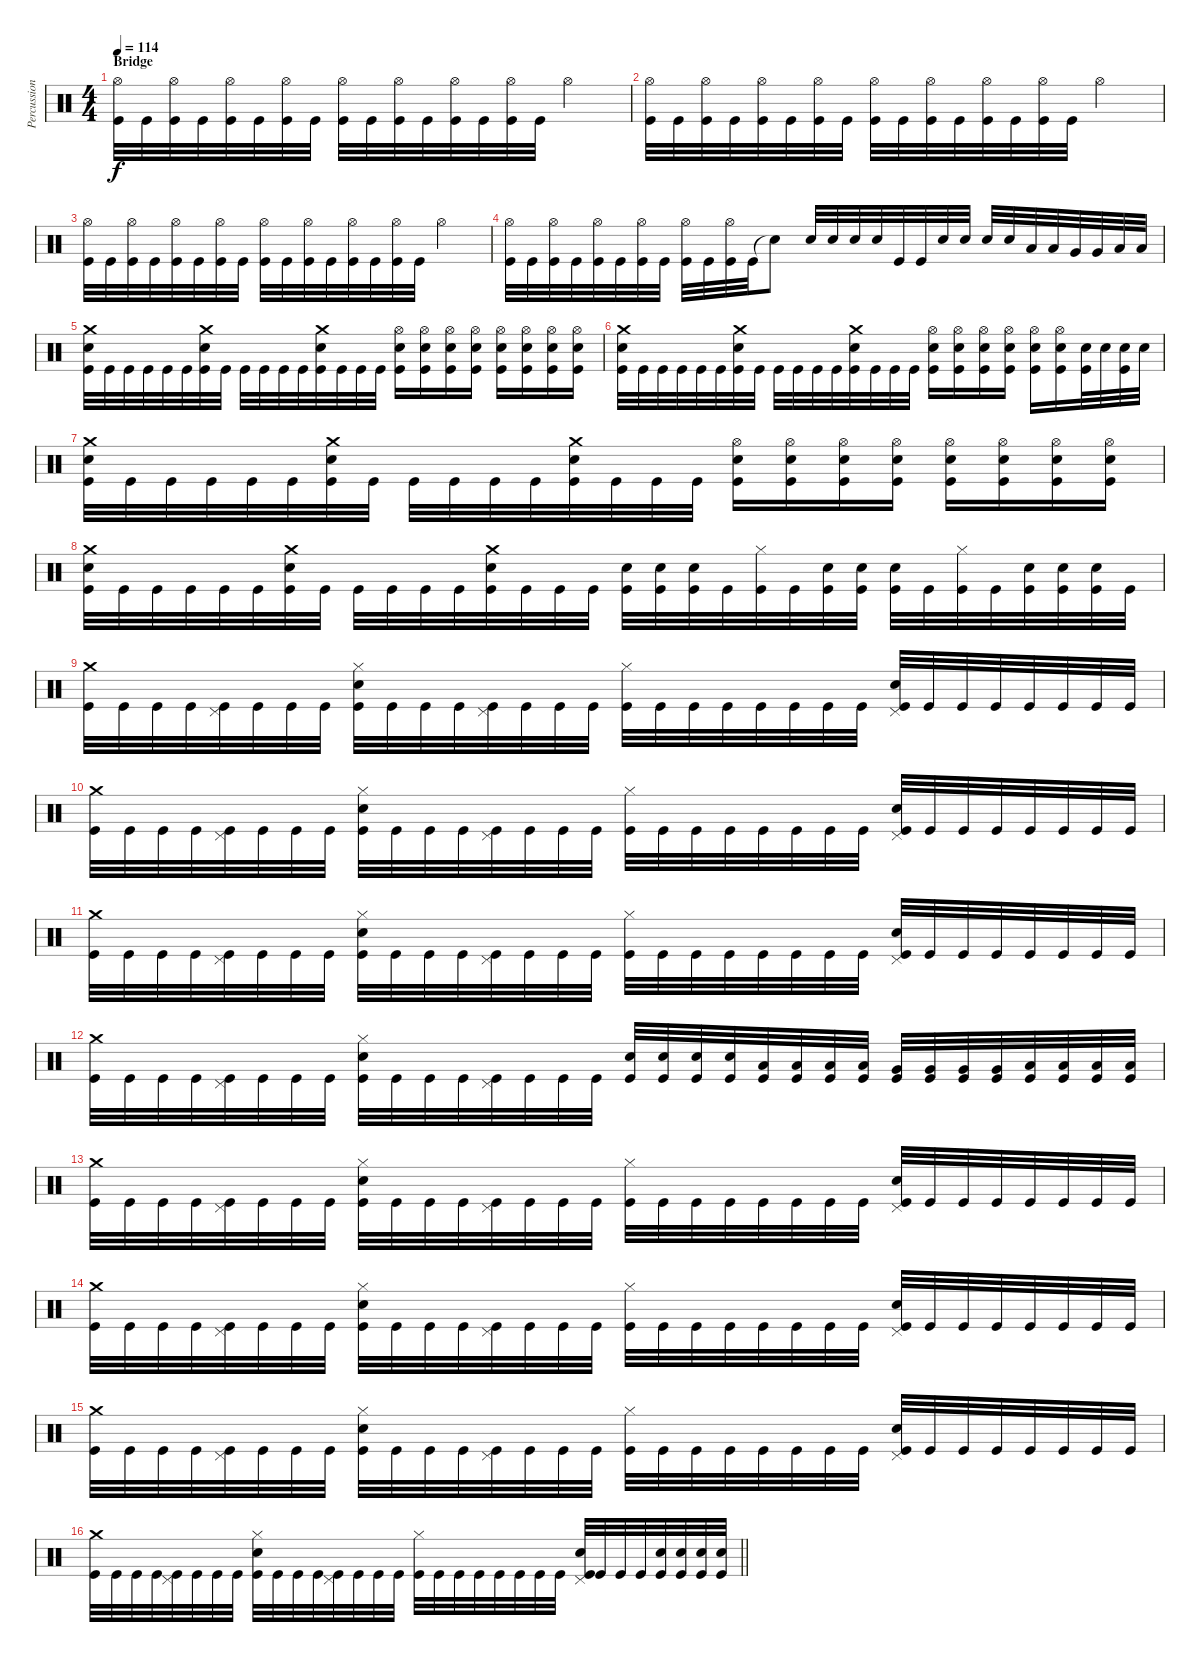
\track ("Percussion" "Percussion") {instrument percussion}
\staff {score}
\articulation defaults
\ts (4 4)
\section ("" "Bridge")
\tempo 114
\clef neutral
\ks c
("Hi-Hat (open)" "Kick (hit)").32{dy f} "Kick (hit)".32 ("Hi-Hat (open)" "Kick (hit)").32 "Kick (hit)".32 ("Hi-Hat (open)" "Kick (hit)").32 "Kick (hit)".32 ("Hi-Hat (open)" "Kick (hit)").32 "Kick (hit)".32 ("Hi-Hat (open)" "Kick (hit)").32 "Kick (hit)".32 ("Hi-Hat (open)" "Kick (hit)").32 "Kick (hit)".32 ("Hi-Hat (open)" "Kick (hit)").32 "Kick (hit)".32 ("Hi-Hat (open)" "Kick (hit)").32 "Kick (hit)".32 "Hi-Hat (open)".2 |
("Hi-Hat (open)" "Kick (hit)").32 "Kick (hit)".32 ("Hi-Hat (open)" "Kick (hit)").32 "Kick (hit)".32 ("Hi-Hat (open)" "Kick (hit)").32 "Kick (hit)".32 ("Hi-Hat (open)" "Kick (hit)").32 "Kick (hit)".32 ("Hi-Hat (open)" "Kick (hit)").32 "Kick (hit)".32 ("Hi-Hat (open)" "Kick (hit)").32 "Kick (hit)".32 ("Hi-Hat (open)" "Kick (hit)").32 "Kick (hit)".32 ("Hi-Hat (open)" "Kick (hit)").32 "Kick (hit)".32 "Hi-Hat (open)".2 |
("Hi-Hat (open)" "Kick (hit)").32 "Kick (hit)".32 ("Hi-Hat (open)" "Kick (hit)").32 "Kick (hit)".32 ("Hi-Hat (open)" "Kick (hit)").32 "Kick (hit)".32 ("Hi-Hat (open)" "Kick (hit)").32 "Kick (hit)".32 ("Hi-Hat (open)" "Kick (hit)").32 "Kick (hit)".32 ("Hi-Hat (open)" "Kick (hit)").32 "Kick (hit)".32 ("Hi-Hat (open)" "Kick (hit)").32 "Kick (hit)".32 ("Hi-Hat (open)" "Kick (hit)").32 "Kick (hit)".32 "Hi-Hat (open)".2 |
("Hi-Hat (open)" "Kick (hit)").32 "Kick (hit)".32 ("Hi-Hat (open)" "Kick (hit)").32 "Kick (hit)".32 ("Hi-Hat (open)" "Kick (hit)").32 "Kick (hit)".32 ("Hi-Hat (open)" "Kick (hit)").32 "Kick (hit)".32 ("Hi-Hat (open)" "Kick (hit)").32 "Kick (hit)".32 ("Hi-Hat (open)" "Kick (hit)").32 "Kick (hit)".32 "Snare (hit)"{t}.8 "Electric Snare (hit)".32 "Electric Snare (hit)".32 "Electric Snare (hit)".32 "Electric Snare (hit)".32 "Kick (hit)".32 "Kick (hit)".32 "Electric Snare (hit)".32 "Electric Snare (hit)".32 "Electric Snare (hit)".32 "Electric Snare (hit)".32 "Low Tom (hit)".32 "Low Tom (hit)".32 "Very Low Tom (hit)".32 "Very Low Tom (hit)".32 "Low Floor Tom (hit)".32 "Low Floor Tom (hit)".32 |
("Crash medium (hit)" "Electric Snare (hit)" "Kick (hit)").32 "Kick (hit)".32 "Kick (hit)".32 "Kick (hit)".32 "Kick (hit)".32 "Kick (hit)".32 ("Crash medium (hit)" "Electric Snare (hit)" "Kick (hit)").32 "Kick (hit)".32 "Kick (hit)".32 "Kick (hit)".32 "Kick (hit)".32 "Kick (hit)".32 ("Crash medium (hit)" "Electric Snare (hit)" "Kick (hit)").32 "Kick (hit)".32 "Kick (hit)".32 "Kick (hit)".32 ("Hi-Hat (open)" "Electric Snare (hit)" "Kick (hit)").16 ("Hi-Hat (open)" "Electric Snare (hit)" "Kick (hit)").16 ("Hi-Hat (open)" "Electric Snare (hit)" "Kick (hit)").16 ("Hi-Hat (open)" "Electric Snare (hit)" "Kick (hit)").16 ("Hi-Hat (open)" "Electric Snare (hit)" "Kick (hit)").16 ("Hi-Hat (open)" "Electric Snare (hit)" "Kick (hit)").16 ("Hi-Hat (open)" "Electric Snare (hit)" "Kick (hit)").16 ("Hi-Hat (open)" "Electric Snare (hit)" "Kick (hit)").16 |
("Crash medium (hit)" "Electric Snare (hit)" "Kick (hit)").32 "Kick (hit)".32 "Kick (hit)".32 "Kick (hit)".32 "Kick (hit)".32 "Kick (hit)".32 ("Crash medium (hit)" "Electric Snare (hit)" "Kick (hit)").32 "Kick (hit)".32 "Kick (hit)".32 "Kick (hit)".32 "Kick (hit)".32 "Kick (hit)".32 ("Crash medium (hit)" "Electric Snare (hit)" "Kick (hit)").32 "Kick (hit)".32 "Kick (hit)".32 "Kick (hit)".32 ("Hi-Hat (open)" "Electric Snare (hit)" "Kick (hit)").16 ("Hi-Hat (open)" "Electric Snare (hit)" "Kick (hit)").16 ("Hi-Hat (open)" "Electric Snare (hit)" "Kick (hit)").16 ("Hi-Hat (open)" "Electric Snare (hit)" "Kick (hit)").16 ("Hi-Hat (open)" "Electric Snare (hit)" "Kick (hit)").16 ("Hi-Hat (open)" "Electric Snare (hit)" "Kick (hit)").16 ("Electric Snare (hit)" "Kick (hit)").32 "Electric Snare (hit)".32 ("Electric Snare (hit)" "Kick (hit)").32 "Electric Snare (hit)".32 |
("Crash medium (hit)" "Electric Snare (hit)" "Kick (hit)").32 "Kick (hit)".32 "Kick (hit)".32 "Kick (hit)".32 "Kick (hit)".32 "Kick (hit)".32 ("Crash medium (hit)" "Electric Snare (hit)" "Kick (hit)").32 "Kick (hit)".32 "Kick (hit)".32 "Kick (hit)".32 "Kick (hit)".32 "Kick (hit)".32 ("Crash medium (hit)" "Electric Snare (hit)" "Kick (hit)").32 "Kick (hit)".32 "Kick (hit)".32 "Kick (hit)".32 ("Hi-Hat (open)" "Electric Snare (hit)" "Kick (hit)").16 ("Hi-Hat (open)" "Electric Snare (hit)" "Kick (hit)").16 ("Hi-Hat (open)" "Electric Snare (hit)" "Kick (hit)").16 ("Hi-Hat (open)" "Electric Snare (hit)" "Kick (hit)").16 ("Hi-Hat (open)" "Electric Snare (hit)" "Kick (hit)").16 ("Hi-Hat (open)" "Electric Snare (hit)" "Kick (hit)").16 ("Hi-Hat (open)" "Electric Snare (hit)" "Kick (hit)").16 ("Hi-Hat (open)" "Electric Snare (hit)" "Kick (hit)").16 |
("Crash medium (hit)" "Electric Snare (hit)" "Kick (hit)").32 "Kick (hit)".32 "Kick (hit)".32 "Kick (hit)".32 "Kick (hit)".32 "Kick (hit)".32 ("Crash medium (hit)" "Electric Snare (hit)" "Kick (hit)").32 "Kick (hit)".32 "Kick (hit)".32 "Kick (hit)".32 "Kick (hit)".32 "Kick (hit)".32 ("Crash medium (hit)" "Electric Snare (hit)" "Kick (hit)").32 "Kick (hit)".32 "Kick (hit)".32 "Kick (hit)".32 ("Electric Snare (hit)" "Kick (hit)").32 ("Electric Snare (hit)" "Kick (hit)").32 ("Electric Snare (hit)" "Kick (hit)").32 "Kick (hit)".32 ("Hi-Hat (closed)" "Kick (hit)").32 "Kick (hit)".32 ("Electric Snare (hit)" "Kick (hit)").32 ("Electric Snare (hit)" "Kick (hit)").32 ("Electric Snare (hit)" "Kick (hit)").32 "Kick (hit)".32 ("Hi-Hat (closed)" "Kick (hit)").32 "Kick (hit)".32 ("Electric Snare (hit)" "Kick (hit)").32 ("Electric Snare (hit)" "Kick (hit)").32 ("Electric Snare (hit)" "Kick (hit)").32 "Kick (hit)".32 |
("Crash medium (hit)" "Kick (hit)").32 "Kick (hit)".32 "Kick (hit)".32 "Kick (hit)".32 ("Pedal Hi-Hat (hit)" "Kick (hit)").32 "Kick (hit)".32 "Kick (hit)".32 "Kick (hit)".32 ("Hi-Hat (closed)" "Electric Snare (hit)" "Kick (hit)").32 "Kick (hit)".32 "Kick (hit)".32 "Kick (hit)".32 ("Pedal Hi-Hat (hit)" "Kick (hit)").32 "Kick (hit)".32 "Kick (hit)".32 "Kick (hit)".32 ("Hi-Hat (closed)" "Kick (hit)").32 "Kick (hit)".32 "Kick (hit)".32 "Kick (hit)".32 "Kick (hit)".32 "Kick (hit)".32 "Kick (hit)".32 "Kick (hit)".32 ("Pedal Hi-Hat (hit)" "Electric Snare (hit)" "Kick (hit)").32 "Kick (hit)".32 "Kick (hit)".32 "Kick (hit)".32 "Kick (hit)".32 "Kick (hit)".32 "Kick (hit)".32 "Kick (hit)".32 |
("Crash medium (hit)" "Kick (hit)").32 "Kick (hit)".32 "Kick (hit)".32 "Kick (hit)".32 ("Pedal Hi-Hat (hit)" "Kick (hit)").32 "Kick (hit)".32 "Kick (hit)".32 "Kick (hit)".32 ("Hi-Hat (closed)" "Electric Snare (hit)" "Kick (hit)").32 "Kick (hit)".32 "Kick (hit)".32 "Kick (hit)".32 ("Pedal Hi-Hat (hit)" "Kick (hit)").32 "Kick (hit)".32 "Kick (hit)".32 "Kick (hit)".32 ("Hi-Hat (closed)" "Kick (hit)").32 "Kick (hit)".32 "Kick (hit)".32 "Kick (hit)".32 "Kick (hit)".32 "Kick (hit)".32 "Kick (hit)".32 "Kick (hit)".32 ("Pedal Hi-Hat (hit)" "Electric Snare (hit)" "Kick (hit)").32 "Kick (hit)".32 "Kick (hit)".32 "Kick (hit)".32 "Kick (hit)".32 "Kick (hit)".32 "Kick (hit)".32 "Kick (hit)".32 |
("Crash medium (hit)" "Kick (hit)").32 "Kick (hit)".32 "Kick (hit)".32 "Kick (hit)".32 ("Pedal Hi-Hat (hit)" "Kick (hit)").32 "Kick (hit)".32 "Kick (hit)".32 "Kick (hit)".32 ("Hi-Hat (closed)" "Electric Snare (hit)" "Kick (hit)").32 "Kick (hit)".32 "Kick (hit)".32 "Kick (hit)".32 ("Pedal Hi-Hat (hit)" "Kick (hit)").32 "Kick (hit)".32 "Kick (hit)".32 "Kick (hit)".32 ("Hi-Hat (closed)" "Kick (hit)").32 "Kick (hit)".32 "Kick (hit)".32 "Kick (hit)".32 "Kick (hit)".32 "Kick (hit)".32 "Kick (hit)".32 "Kick (hit)".32 ("Pedal Hi-Hat (hit)" "Electric Snare (hit)" "Kick (hit)").32 "Kick (hit)".32 "Kick (hit)".32 "Kick (hit)".32 "Kick (hit)".32 "Kick (hit)".32 "Kick (hit)".32 "Kick (hit)".32 |
("Crash medium (hit)" "Kick (hit)").32 "Kick (hit)".32 "Kick (hit)".32 "Kick (hit)".32 ("Pedal Hi-Hat (hit)" "Kick (hit)").32 "Kick (hit)".32 "Kick (hit)".32 "Kick (hit)".32 ("Hi-Hat (closed)" "Electric Snare (hit)" "Kick (hit)").32 "Kick (hit)".32 "Kick (hit)".32 "Kick (hit)".32 ("Pedal Hi-Hat (hit)" "Kick (hit)").32 "Kick (hit)".32 "Kick (hit)".32 "Kick (hit)".32 ("Electric Snare (hit)" "Kick (hit)").32 ("Electric Snare (hit)" "Kick (hit)").32 ("Electric Snare (hit)" "Kick (hit)").32 ("Electric Snare (hit)" "Kick (hit)").32 ("Low Floor Tom (hit)" "Kick (hit)").32 ("Low Floor Tom (hit)" "Kick (hit)").32 ("Low Floor Tom (hit)" "Kick (hit)").32 ("Low Floor Tom (hit)" "Kick (hit)").32 ("Very Low Tom (hit)" "Kick (hit)").32 ("Very Low Tom (hit)" "Kick (hit)").32 ("Very Low Tom (hit)" "Kick (hit)").32 ("Very Low Tom (hit)" "Kick (hit)").32 ("Low Tom (hit)" "Kick (hit)").32 ("Low Tom (hit)" "Kick (hit)").32 ("Low Tom (hit)" "Kick (hit)").32 ("Low Tom (hit)" "Kick (hit)").32 |
("Crash medium (hit)" "Kick (hit)").32 "Kick (hit)".32 "Kick (hit)".32 "Kick (hit)".32 ("Pedal Hi-Hat (hit)" "Kick (hit)").32 "Kick (hit)".32 "Kick (hit)".32 "Kick (hit)".32 ("Hi-Hat (closed)" "Electric Snare (hit)" "Kick (hit)").32 "Kick (hit)".32 "Kick (hit)".32 "Kick (hit)".32 ("Pedal Hi-Hat (hit)" "Kick (hit)").32 "Kick (hit)".32 "Kick (hit)".32 "Kick (hit)".32 ("Hi-Hat (closed)" "Kick (hit)").32 "Kick (hit)".32 "Kick (hit)".32 "Kick (hit)".32 "Kick (hit)".32 "Kick (hit)".32 "Kick (hit)".32 "Kick (hit)".32 ("Pedal Hi-Hat (hit)" "Electric Snare (hit)" "Kick (hit)").32 "Kick (hit)".32 "Kick (hit)".32 "Kick (hit)".32 "Kick (hit)".32 "Kick (hit)".32 "Kick (hit)".32 "Kick (hit)".32 |
("Crash medium (hit)" "Kick (hit)").32 "Kick (hit)".32 "Kick (hit)".32 "Kick (hit)".32 ("Pedal Hi-Hat (hit)" "Kick (hit)").32 "Kick (hit)".32 "Kick (hit)".32 "Kick (hit)".32 ("Hi-Hat (closed)" "Electric Snare (hit)" "Kick (hit)").32 "Kick (hit)".32 "Kick (hit)".32 "Kick (hit)".32 ("Pedal Hi-Hat (hit)" "Kick (hit)").32 "Kick (hit)".32 "Kick (hit)".32 "Kick (hit)".32 ("Hi-Hat (closed)" "Kick (hit)").32 "Kick (hit)".32 "Kick (hit)".32 "Kick (hit)".32 "Kick (hit)".32 "Kick (hit)".32 "Kick (hit)".32 "Kick (hit)".32 ("Pedal Hi-Hat (hit)" "Electric Snare (hit)" "Kick (hit)").32 "Kick (hit)".32 "Kick (hit)".32 "Kick (hit)".32 "Kick (hit)".32 "Kick (hit)".32 "Kick (hit)".32 "Kick (hit)".32 |
("Crash medium (hit)" "Kick (hit)").32 "Kick (hit)".32 "Kick (hit)".32 "Kick (hit)".32 ("Pedal Hi-Hat (hit)" "Kick (hit)").32 "Kick (hit)".32 "Kick (hit)".32 "Kick (hit)".32 ("Hi-Hat (closed)" "Electric Snare (hit)" "Kick (hit)").32 "Kick (hit)".32 "Kick (hit)".32 "Kick (hit)".32 ("Pedal Hi-Hat (hit)" "Kick (hit)").32 "Kick (hit)".32 "Kick (hit)".32 "Kick (hit)".32 ("Hi-Hat (closed)" "Kick (hit)").32 "Kick (hit)".32 "Kick (hit)".32 "Kick (hit)".32 "Kick (hit)".32 "Kick (hit)".32 "Kick (hit)".32 "Kick (hit)".32 ("Pedal Hi-Hat (hit)" "Electric Snare (hit)" "Kick (hit)").32 "Kick (hit)".32 "Kick (hit)".32 "Kick (hit)".32 "Kick (hit)".32 "Kick (hit)".32 "Kick (hit)".32 "Kick (hit)".32 |
\barLineRight lightlight
("Crash medium (hit)" "Kick (hit)").32 "Kick (hit)".32 "Kick (hit)".32 "Kick (hit)".32 ("Pedal Hi-Hat (hit)" "Kick (hit)").32 "Kick (hit)".32 "Kick (hit)".32 "Kick (hit)".32 ("Hi-Hat (closed)" "Electric Snare (hit)" "Kick (hit)").32 "Kick (hit)".32 "Kick (hit)".32 "Kick (hit)".32 ("Pedal Hi-Hat (hit)" "Kick (hit)").32 "Kick (hit)".32 "Kick (hit)".32 "Kick (hit)".32 ("Hi-Hat (closed)" "Kick (hit)").32 "Kick (hit)".32 "Kick (hit)".32 "Kick (hit)".32 "Kick (hit)".32 "Kick (hit)".32 "Kick (hit)".32 "Kick (hit)".32 ("Pedal Hi-Hat (hit)" "Electric Snare (hit)" "Kick (hit)").32 "Kick (hit)".32 "Kick (hit)".32 "Kick (hit)".32 ("Electric Snare (hit)" "Kick (hit)").32 ("Electric Snare (hit)" "Kick (hit)").32 ("Electric Snare (hit)" "Kick (hit)").32 ("Electric Snare (hit)" "Kick (hit)").32
